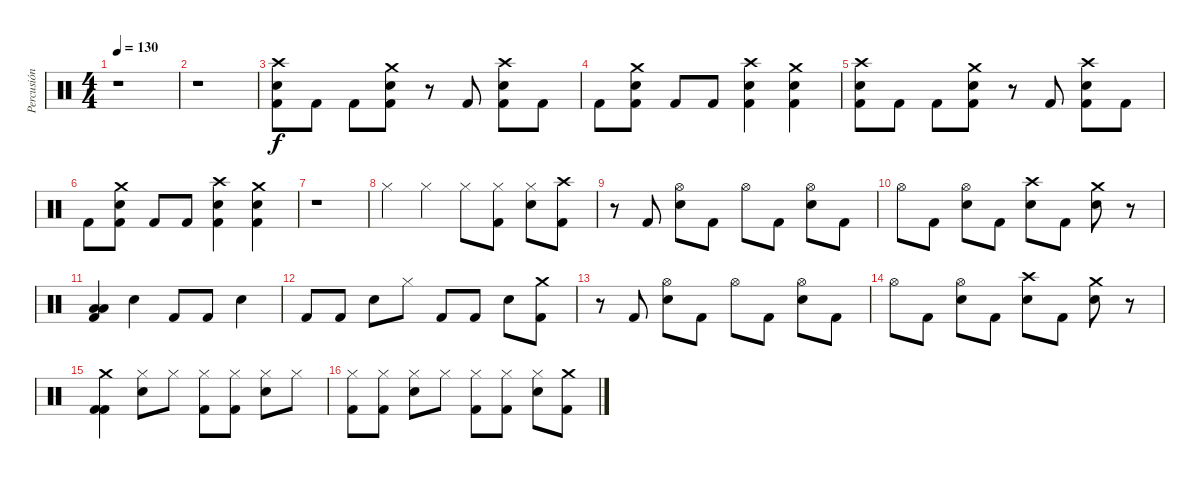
\track ("Percusión" "Percusión") {instrument percussion}
\staff {score}
\articulation defaults
\ts (4 4)
\tempo 130
\clef neutral
\ks c
r.1{dy f} |
r.1 |
("Kick (hit) 2" "Snare (hit) 2" "Crash high (hit)").8 "Kick (hit) 2".8 "Kick (hit) 2".8 ("Kick (hit) 2" "Snare (hit) 2" "Crash medium (hit)").8 r.8 "Kick (hit) 2".8 ("Kick (hit) 2" "Snare (hit) 2" "Crash high (hit)").8 "Kick (hit) 2".8 |
"Kick (hit) 2".8 ("Kick (hit) 2" "Snare (hit) 2" "Crash medium (hit)").8 "Kick (hit) 2".8 "Kick (hit) 2".8 ("Kick (hit) 2" "Snare (hit) 2" "Crash high (hit)").4 ("Kick (hit) 2" "Snare (hit) 2" "Crash medium (hit)").4 |
("Kick (hit) 2" "Snare (hit) 2" "Crash high (hit)").8 "Kick (hit) 2".8 "Kick (hit) 2".8 ("Kick (hit) 2" "Snare (hit) 2" "Crash medium (hit)").8 r.8 "Kick (hit) 2".8 ("Kick (hit) 2" "Snare (hit) 2" "Crash high (hit)").8 "Kick (hit) 2".8 |
"Kick (hit) 2".8 ("Kick (hit) 2" "Snare (hit) 2" "Crash medium (hit)").8 "Kick (hit) 2".8 "Kick (hit) 2".8 ("Kick (hit) 2" "Snare (hit) 2" "Crash high (hit)").4 ("Kick (hit) 2" "Snare (hit) 2" "Crash medium (hit)").4 |
r.1 |
"Hi-Hat (closed)".4 "Hi-Hat (closed)".4 "Hi-Hat (closed)".8 ("Kick (hit) 2" "Hi-Hat (closed)").8 ("Snare (hit) 2" "Hi-Hat (closed)").8 ("Kick (hit) 2" "Crash high (hit)").8 |
r.8 "Kick (hit) 2".8 ("Snare (hit) 2" "Hi-Hat (open)").8 "Kick (hit) 2".8 "Hi-Hat (open)".8 "Kick (hit) 2".8 ("Snare (hit) 2" "Hi-Hat (open)").8 "Kick (hit) 2".8 |
"Hi-Hat (open)".8 "Kick (hit) 2".8 ("Snare (hit) 2" "Hi-Hat (open)").8 "Kick (hit) 2".8 ("Snare (hit) 2" "Crash high (hit)").8 "Kick (hit) 2".8 ("Snare (hit) 2" "Crash medium (hit)").8 r.8 |
("Low Tom (hit)" "Low Tom (hit)" "Kick (hit) 2").4 "Snare (hit) 2".4 "Kick (hit) 2".8 "Kick (hit) 2".8 "Snare (hit) 2".4 |
"Kick (hit) 2".8 "Kick (hit) 2".8 "Snare (hit) 2".8 "Hi-Hat (closed)".8 "Kick (hit) 2".8 "Kick (hit) 2".8 "Snare (hit) 2".8 ("Kick (hit) 2" "Crash medium (hit)").8 |
r.8 "Kick (hit) 2".8 ("Snare (hit) 2" "Hi-Hat (open)").8 "Kick (hit) 2".8 "Hi-Hat (open)".8 "Kick (hit) 2".8 ("Snare (hit) 2" "Hi-Hat (open)").8 "Kick (hit) 2".8 |
"Hi-Hat (open)".8 "Kick (hit) 2".8 ("Snare (hit) 2" "Hi-Hat (open)").8 "Kick (hit) 2".8 ("Snare (hit) 2" "Crash high (hit)").8 "Kick (hit) 2".8 ("Snare (hit) 2" "Crash medium (hit)").8 r.8 |
("Kick (hit) 2" "Kick (hit) 2" "Crash medium (hit)").4 ("Snare (hit) 2" "Hi-Hat (closed)").8 "Hi-Hat (closed)".8 ("Kick (hit) 2" "Hi-Hat (closed)").8 ("Kick (hit) 2" "Hi-Hat (closed)").8 ("Snare (hit) 2" "Hi-Hat (closed)").8 "Hi-Hat (closed)".8 |
("Kick (hit) 2" "Hi-Hat (closed)").8 ("Kick (hit) 2" "Hi-Hat (closed)").8 ("Snare (hit) 2" "Hi-Hat (closed)").8 "Hi-Hat (closed)".8 ("Kick (hit) 2" "Hi-Hat (closed)").8 ("Kick (hit) 2" "Hi-Hat (closed)").8 ("Snare (hit) 2" "Hi-Hat (closed)").8 ("Kick (hit) 2" "Crash medium (hit)").8
